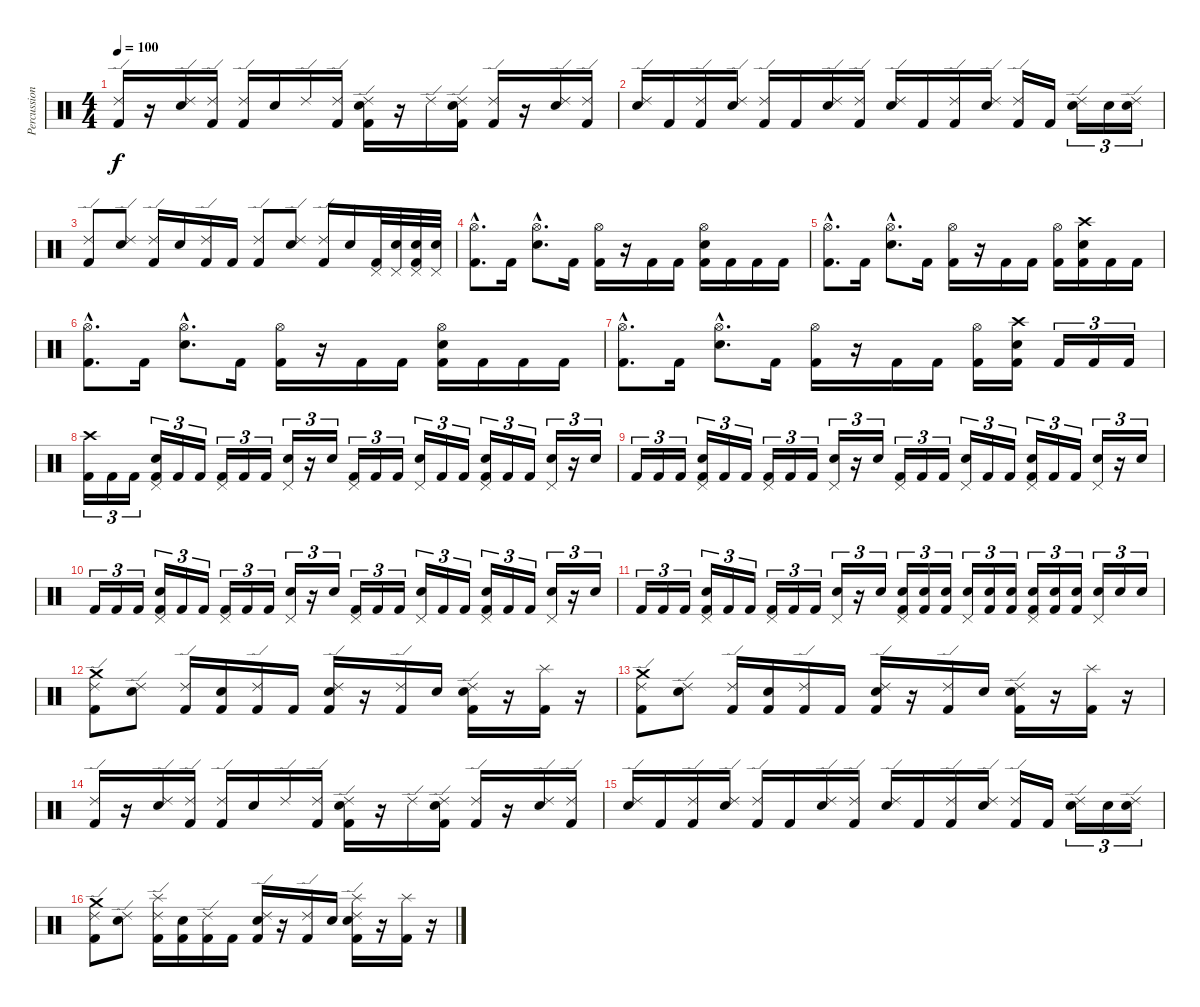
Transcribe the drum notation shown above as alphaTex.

\track ("Percussion" "Percussion") {instrument percussion}
\staff {score}
\articulation defaults
\ts (4 4)
\tempo 100
\clef neutral
\ks c
("Ride (edge) 2" "Kick (hit) 2").16{dy f} r.16 ("Ride (edge) 2" "Electric Snare (hit)").16 ("Ride (edge) 2" "Kick (hit) 2").16 ("Ride (edge) 2" "Kick (hit) 2").16 "Electric Snare (hit)".16 "Ride (edge) 2".16 ("Ride (edge) 2" "Kick (hit) 2").16 ("Ride (edge) 2" "Electric Snare (hit)" "Kick (hit) 2").16 r.16 "Ride (edge) 2".16 ("Ride (edge) 2" "Electric Snare (hit)" "Kick (hit) 2").16 ("Ride (edge) 2" "Kick (hit) 2").16 r.16 ("Ride (edge) 2" "Electric Snare (hit)").16 ("Ride (edge) 2" "Kick (hit) 2").16 |
("Ride (edge) 2" "Electric Snare (hit)").16 "Kick (hit) 2".16 ("Ride (edge) 2" "Kick (hit) 2").16 ("Ride (edge) 2" "Electric Snare (hit)").16 ("Ride (edge) 2" "Kick (hit) 2").16 "Kick (hit) 2".16 ("Ride (edge) 2" "Electric Snare (hit)").16 ("Ride (edge) 2" "Kick (hit) 2").16 ("Ride (edge) 2" "Electric Snare (hit)").16 "Kick (hit) 2".16 ("Ride (edge) 2" "Kick (hit) 2").16 ("Ride (edge) 2" "Electric Snare (hit)").16 ("Ride (edge) 2" "Kick (hit) 2").16 "Kick (hit) 2".16 ("Ride (edge) 2" "Electric Snare (hit)").16{tu (3 2)} "Electric Snare (hit)".16{tu (3 2)} ("Ride (edge) 2" "Electric Snare (hit)").16{tu (3 2)} |
("Ride (edge) 2" "Kick (hit) 2").8 ("Ride (edge) 2" "Electric Snare (hit)").8 ("Ride (edge) 2" "Kick (hit) 2").16 "Electric Snare (hit)".16 ("Ride (edge) 2" "Kick (hit) 2").16 "Kick (hit) 2".16 ("Ride (edge) 2" "Kick (hit) 2").8 ("Ride (edge) 2" "Electric Snare (hit)").8 ("Ride (edge) 2" "Kick (hit) 2").16 "Electric Snare (hit)".16 ("Pedal Hi-Hat (hit)" "Kick (hit) 2").32 ("Pedal Hi-Hat (hit)" "Electric Snare (hit)").32 ("Pedal Hi-Hat (hit)" "Electric Snare (hit)" "Kick (hit) 2").32 ("Pedal Hi-Hat (hit)" "Electric Snare (hit)").32 |
("Hi-Hat (open)"{hac} "Kick (hit) 2"{hac}).8{d} "Kick (hit) 2".16 ("Hi-Hat (open)"{hac} "Electric Snare (hit)"{hac}).8{d} "Kick (hit) 2".16 ("Hi-Hat (open)" "Kick (hit) 2").16 r.16 "Kick (hit) 2".16 "Kick (hit) 2".16 ("Hi-Hat (open)" "Electric Snare (hit)" "Kick (hit) 2").16 "Kick (hit) 2".16 "Kick (hit) 2".16 "Kick (hit) 2".16 |
("Hi-Hat (open)"{hac} "Kick (hit) 2"{hac}).8{d} "Kick (hit) 2".16 ("Hi-Hat (open)"{hac} "Electric Snare (hit)"{hac}).8{d} "Kick (hit) 2".16 ("Hi-Hat (open)" "Kick (hit) 2").16 r.16 "Kick (hit) 2".16 "Kick (hit) 2".16 ("Hi-Hat (open)" "Kick (hit) 2").16 ("Crash high (hit)" "Electric Snare (hit)" "Kick (hit) 2").16 "Kick (hit) 2".16 "Kick (hit) 2".16 |
("Hi-Hat (open)"{hac} "Kick (hit) 2"{hac}).8{d} "Kick (hit) 2".16 ("Hi-Hat (open)"{hac} "Electric Snare (hit)"{hac}).8{d} "Kick (hit) 2".16 ("Hi-Hat (open)" "Kick (hit) 2").16 r.16 "Kick (hit) 2".16 "Kick (hit) 2".16 ("Hi-Hat (open)" "Electric Snare (hit)" "Kick (hit) 2").16 "Kick (hit) 2".16 "Kick (hit) 2".16 "Kick (hit) 2".16 |
("Hi-Hat (open)"{hac} "Kick (hit) 2"{hac}).8{d} "Kick (hit) 2".16 ("Hi-Hat (open)"{hac} "Electric Snare (hit)"{hac}).8{d} "Kick (hit) 2".16 ("Hi-Hat (open)" "Kick (hit) 2").16 r.16 "Kick (hit) 2".16 "Kick (hit) 2".16 ("Hi-Hat (open)" "Kick (hit) 2").16 ("Crash high (hit)" "Electric Snare (hit)" "Kick (hit) 2").16 "Kick (hit) 2".16{tu (3 2)} "Kick (hit) 2".16{tu (3 2)} "Kick (hit) 2".16{tu (3 2)} |
("Crash high (hit)" "Kick (hit) 2").16{tu (3 2)} "Kick (hit) 2".16{tu (3 2)} "Kick (hit) 2".16{tu (3 2)} ("Pedal Hi-Hat (hit)" "Electric Snare (hit)" "Kick (hit) 2").16{tu (3 2)} "Kick (hit) 2".16{tu (3 2)} "Kick (hit) 2".16{tu (3 2)} ("Pedal Hi-Hat (hit)" "Kick (hit) 2").16{tu (3 2)} "Kick (hit) 2".16{tu (3 2)} "Kick (hit) 2".16{tu (3 2)} ("Pedal Hi-Hat (hit)" "Electric Snare (hit)").16{tu (3 2)} r.16{tu (3 2)} "Electric Snare (hit)".16{tu (3 2)} ("Pedal Hi-Hat (hit)" "Kick (hit) 2").16{tu (3 2)} "Kick (hit) 2".16{tu (3 2)} "Kick (hit) 2".16{tu (3 2)} ("Pedal Hi-Hat (hit)" "Electric Snare (hit)").16{tu (3 2)} "Kick (hit) 2".16{tu (3 2)} "Kick (hit) 2".16{tu (3 2)} ("Pedal Hi-Hat (hit)" "Electric Snare (hit)" "Kick (hit) 2").16{tu (3 2)} "Kick (hit) 2".16{tu (3 2)} "Kick (hit) 2".16{tu (3 2)} ("Pedal Hi-Hat (hit)" "Electric Snare (hit)").16{tu (3 2)} r.16{tu (3 2)} "Electric Snare (hit)".16{tu (3 2)} |
"Kick (hit) 2".16{tu (3 2)} "Kick (hit) 2".16{tu (3 2)} "Kick (hit) 2".16{tu (3 2)} ("Pedal Hi-Hat (hit)" "Electric Snare (hit)" "Kick (hit) 2").16{tu (3 2)} "Kick (hit) 2".16{tu (3 2)} "Kick (hit) 2".16{tu (3 2)} ("Pedal Hi-Hat (hit)" "Kick (hit) 2").16{tu (3 2)} "Kick (hit) 2".16{tu (3 2)} "Kick (hit) 2".16{tu (3 2)} ("Pedal Hi-Hat (hit)" "Electric Snare (hit)").16{tu (3 2)} r.16{tu (3 2)} "Electric Snare (hit)".16{tu (3 2)} ("Pedal Hi-Hat (hit)" "Kick (hit) 2").16{tu (3 2)} "Kick (hit) 2".16{tu (3 2)} "Kick (hit) 2".16{tu (3 2)} ("Pedal Hi-Hat (hit)" "Electric Snare (hit)").16{tu (3 2)} "Kick (hit) 2".16{tu (3 2)} "Kick (hit) 2".16{tu (3 2)} ("Pedal Hi-Hat (hit)" "Electric Snare (hit)" "Kick (hit) 2").16{tu (3 2)} "Kick (hit) 2".16{tu (3 2)} "Kick (hit) 2".16{tu (3 2)} ("Pedal Hi-Hat (hit)" "Electric Snare (hit)").16{tu (3 2)} r.16{tu (3 2)} "Electric Snare (hit)".16{tu (3 2)} |
"Kick (hit) 2".16{tu (3 2)} "Kick (hit) 2".16{tu (3 2)} "Kick (hit) 2".16{tu (3 2)} ("Pedal Hi-Hat (hit)" "Electric Snare (hit)" "Kick (hit) 2").16{tu (3 2)} "Kick (hit) 2".16{tu (3 2)} "Kick (hit) 2".16{tu (3 2)} ("Pedal Hi-Hat (hit)" "Kick (hit) 2").16{tu (3 2)} "Kick (hit) 2".16{tu (3 2)} "Kick (hit) 2".16{tu (3 2)} ("Pedal Hi-Hat (hit)" "Electric Snare (hit)").16{tu (3 2)} r.16{tu (3 2)} "Electric Snare (hit)".16{tu (3 2)} ("Pedal Hi-Hat (hit)" "Kick (hit) 2").16{tu (3 2)} "Kick (hit) 2".16{tu (3 2)} "Kick (hit) 2".16{tu (3 2)} ("Pedal Hi-Hat (hit)" "Electric Snare (hit)").16{tu (3 2)} "Kick (hit) 2".16{tu (3 2)} "Kick (hit) 2".16{tu (3 2)} ("Pedal Hi-Hat (hit)" "Electric Snare (hit)" "Kick (hit) 2").16{tu (3 2)} "Kick (hit) 2".16{tu (3 2)} "Kick (hit) 2".16{tu (3 2)} ("Pedal Hi-Hat (hit)" "Electric Snare (hit)").16{tu (3 2)} r.16{tu (3 2)} "Electric Snare (hit)".16{tu (3 2)} |
"Kick (hit) 2".16{tu (3 2)} "Kick (hit) 2".16{tu (3 2)} "Kick (hit) 2".16{tu (3 2)} ("Pedal Hi-Hat (hit)" "Electric Snare (hit)" "Kick (hit) 2").16{tu (3 2)} "Kick (hit) 2".16{tu (3 2)} "Kick (hit) 2".16{tu (3 2)} ("Pedal Hi-Hat (hit)" "Kick (hit) 2").16{tu (3 2)} "Kick (hit) 2".16{tu (3 2)} "Kick (hit) 2".16{tu (3 2)} ("Pedal Hi-Hat (hit)" "Electric Snare (hit)").16{tu (3 2)} r.16{tu (3 2)} "Electric Snare (hit)".16{tu (3 2)} ("Pedal Hi-Hat (hit)" "Electric Snare (hit)" "Kick (hit) 2").16{tu (3 2)} ("Electric Snare (hit)" "Kick (hit) 2").16{tu (3 2)} ("Electric Snare (hit)" "Kick (hit) 2").16{tu (3 2)} ("Pedal Hi-Hat (hit)" "Electric Snare (hit)").16{tu (3 2)} ("Electric Snare (hit)" "Kick (hit) 2").16{tu (3 2)} ("Electric Snare (hit)" "Kick (hit) 2").16{tu (3 2)} ("Pedal Hi-Hat (hit)" "Electric Snare (hit)" "Kick (hit) 2").16{tu (3 2)} ("Electric Snare (hit)" "Kick (hit) 2").16{tu (3 2)} ("Electric Snare (hit)" "Kick (hit) 2").16{tu (3 2)} ("Pedal Hi-Hat (hit)" "Electric Snare (hit)").16{tu (3 2)} "Electric Snare (hit)".16{tu (3 2)} "Electric Snare (hit)".16{tu (3 2)} |
("Crash medium (hit)" "Ride (edge) 2" "Kick (hit) 2").8 ("Ride (edge) 2" "Electric Snare (hit)").8 ("Ride (edge) 2" "Kick (hit) 2").16 ("Electric Snare (hit)" "Kick (hit) 2").16 ("Ride (edge) 2" "Kick (hit) 2").16 "Kick (hit) 2".16 ("Ride (edge) 2" "Electric Snare (hit)" "Kick (hit) 2").16 r.16 ("Ride (edge) 2" "Kick (hit) 2").16 "Electric Snare (hit)".16 ("Ride (edge) 2" "Electric Snare (hit)" "Kick (hit) 2").16 r.16 ("Splash (hit)" "Kick (hit) 2").16 r.16 |
("Crash medium (hit)" "Ride (edge) 2" "Kick (hit) 2").8 ("Ride (edge) 2" "Electric Snare (hit)").8 ("Ride (edge) 2" "Kick (hit) 2").16 ("Electric Snare (hit)" "Kick (hit) 2").16 ("Ride (edge) 2" "Kick (hit) 2").16 "Kick (hit) 2".16 ("Ride (edge) 2" "Electric Snare (hit)" "Kick (hit) 2").16 r.16 ("Ride (edge) 2" "Kick (hit) 2").16 "Electric Snare (hit)".16 ("Ride (edge) 2" "Electric Snare (hit)" "Kick (hit) 2").16 r.16 ("Splash (hit)" "Kick (hit) 2").16 r.16 |
("Ride (edge) 2" "Kick (hit) 2").16 r.16 ("Ride (edge) 2" "Electric Snare (hit)").16 ("Ride (edge) 2" "Kick (hit) 2").16 ("Ride (edge) 2" "Kick (hit) 2").16 "Electric Snare (hit)".16 "Ride (edge) 2".16 ("Ride (edge) 2" "Kick (hit) 2").16 ("Ride (edge) 2" "Electric Snare (hit)" "Kick (hit) 2").16 r.16 "Ride (edge) 2".16 ("Ride (edge) 2" "Electric Snare (hit)" "Kick (hit) 2").16 ("Ride (edge) 2" "Kick (hit) 2").16 r.16 ("Ride (edge) 2" "Electric Snare (hit)").16 ("Ride (edge) 2" "Kick (hit) 2").16 |
("Ride (edge) 2" "Electric Snare (hit)").16 "Kick (hit) 2".16 ("Ride (edge) 2" "Kick (hit) 2").16 ("Ride (edge) 2" "Electric Snare (hit)").16 ("Ride (edge) 2" "Kick (hit) 2").16 "Kick (hit) 2".16 ("Ride (edge) 2" "Electric Snare (hit)").16 ("Ride (edge) 2" "Kick (hit) 2").16 ("Ride (edge) 2" "Electric Snare (hit)").16 "Kick (hit) 2".16 ("Ride (edge) 2" "Kick (hit) 2").16 ("Ride (edge) 2" "Electric Snare (hit)").16 ("Ride (edge) 2" "Kick (hit) 2").16 "Kick (hit) 2".16 ("Ride (edge) 2" "Electric Snare (hit)").16{tu (3 2)} "Electric Snare (hit)".16{tu (3 2)} ("Ride (edge) 2" "Electric Snare (hit)").16{tu (3 2)} |
("Crash medium (hit)" "Ride (edge) 2" "Kick (hit) 2").8 ("Ride (edge) 2" "Electric Snare (hit)").8 ("Splash (hit)" "Ride (edge) 2" "Kick (hit) 2").16 ("Electric Snare (hit)" "Kick (hit) 2").16 ("Ride (edge) 2" "Kick (hit) 2").16 "Kick (hit) 2".16 ("Ride (edge) 2" "Electric Snare (hit)" "Kick (hit) 2").16 r.16 ("Ride (edge) 2" "Kick (hit) 2").16 "Electric Snare (hit)".16 ("Splash (hit)" "Ride (edge) 2" "Electric Snare (hit)" "Kick (hit) 2").16 r.16 ("Splash (hit)" "Kick (hit) 2").16 r.16
